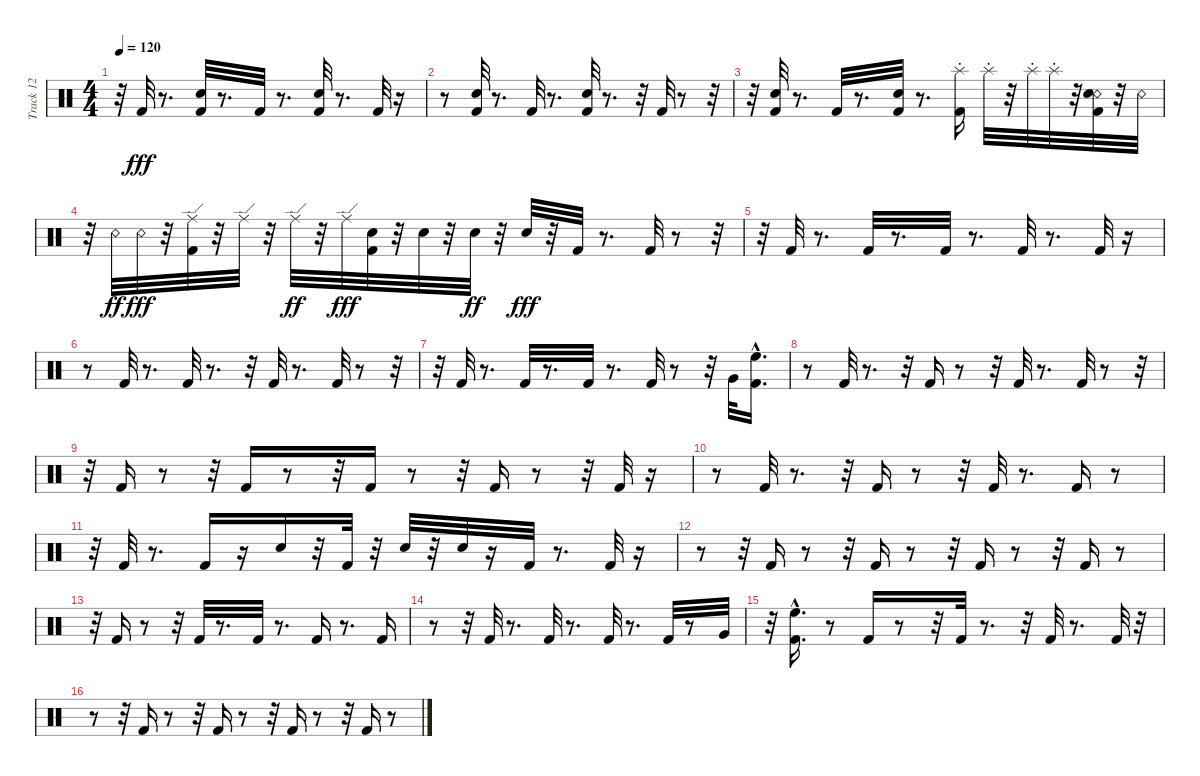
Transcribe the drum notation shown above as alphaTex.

\track ("Track 12" "Track 12") {instrument percussion}
\staff {score}
\articulation defaults
\ts (4 4)
\tempo 120
\clef neutral
\ks c
r.32{dy fff} "Kick (hit) 2".32 r.8{d} ("Electric Snare (hit)" "Kick (hit) 2").32 r.8{d} "Kick (hit) 2".32 r.8{d} ("Electric Snare (hit)" "Kick (hit) 2").32 r.8{d} "Kick (hit) 2".32 r.16 |
r.8 ("Electric Snare (hit)" "Kick (hit) 2").32 r.8{d} "Kick (hit) 2".32 r.8{d} ("Electric Snare (hit)" "Kick (hit) 2").32 r.8{d} r.32 "Kick (hit) 2".32 r.8 r.32 |
r.32 ("Kick (hit) 2" "Electric Snare (hit)").32 r.8{d} "Kick (hit) 2".32 r.8{d} ("Electric Snare (hit)" "Kick (hit) 2").32 r.8{d} ("Splash (choke)" "Kick (hit) 2").16 "Splash (choke)".32 r.32 "Splash (choke)".32 "Splash (choke)".32 r.32 ("Snare (rim shot)" "Kick (hit) 2" "Electric Snare (hit)").32 r.32 "Snare (rim shot)".32 |
r.32 "Snare (rim shot)".32{dy ff} "Snare (rim shot)".32{dy fff} r.32 ("Ride (edge)" "Kick (hit) 2").32 r.32 "Ride (edge)".32 r.32 "Ride (edge)".32{dy ff} r.32 "Ride (edge)".32{dy fff} ("Snare (hit)" "Kick (hit) 2").32 r.32 "Snare (hit)".32 r.32 "Snare (hit)".32{dy ff} r.32 "Snare (hit)".32{dy fff} r.32 "Kick (hit) 2".32 r.8{d} "Kick (hit) 2".32 r.8 r.32 |
r.32 "Kick (hit) 2".32 r.8{d} "Kick (hit) 2".32 r.8{d} "Kick (hit) 2".32 r.8{d} "Kick (hit) 2".32 r.8{d} "Kick (hit) 2".32 r.16 |
r.8 "Kick (hit) 2".32 r.8{d} "Kick (hit) 2".32 r.8{d} r.32 "Kick (hit) 2".32 r.8{d} "Kick (hit) 2".32 r.8 r.32 |
r.32 "Kick (hit) 2".32 r.8{d} "Kick (hit) 2".32 r.8{d} "Kick (hit) 2".32 r.8{d} "Kick (hit) 2".32 r.8 r.32 "Very Low Tom (hit)".32 ("High Floor Tom (hit)"{hac} "Kick (hit) 2").16{d} |
r.8 "Kick (hit) 2".32 r.8{d} r.32 "Kick (hit) 2".16 r.8 r.32 "Kick (hit) 2".32 r.8{d} "Kick (hit) 2".32 r.8 r.32 |
r.32 "Kick (hit) 2".16 r.8 r.32 "Kick (hit) 2".16 r.8 r.32 "Kick (hit) 2".16 r.8 r.32 "Kick (hit) 2".16 r.8 r.32 "Kick (hit) 2".32 r.16 |
r.8 "Kick (hit) 2".32 r.8{d} r.32 "Kick (hit) 2".16 r.8 r.32 "Kick (hit) 2".32 r.8{d} "Kick (hit) 2".16 r.8 |
r.32 "Kick (hit) 2".32 r.8{d} "Kick (hit) 2".16 r.16 "Electric Snare (hit)".16 r.32 "Kick (hit) 2".32 r.32 "Electric Snare (hit)".32 r.32 "Electric Snare (hit)".32 r.16 "Kick (hit) 2".32 r.8{d} "Kick (hit) 2".32 r.16 |
r.8 r.32 "Kick (hit) 2".16 r.8 r.32 "Kick (hit) 2".16 r.8 r.32 "Kick (hit) 2".16 r.8 r.32 "Kick (hit) 2".16 r.8 |
r.32 "Kick (hit) 2".16 r.8 r.32 "Kick (hit) 2".32 r.8{d} "Kick (hit) 2".32 r.8{d} "Kick (hit) 2".16 r.8{d} "Kick (hit) 2".16 |
r.8 r.32 "Kick (hit) 2".32 r.8{d} "Kick (hit) 2".32 r.8{d} "Kick (hit) 2".32 r.8{d} "Kick (hit) 2".32 r.8 "Very Low Tom (hit)".32 |
r.32 ("High Floor Tom (hit)"{hac} "Kick (hit) 2").16{d} r.8 "Kick (hit) 2".16 r.8 r.32 "Kick (hit) 2".32 r.8{d} r.32 "Kick (hit) 2".32 r.8{d} "Kick (hit) 2".32 r.32 |
r.8 r.32 "Kick (hit) 2".16 r.8 r.32 "Kick (hit) 2".16 r.8 r.32 "Kick (hit) 2".16 r.8 r.32 "Kick (hit) 2".16 r.8
